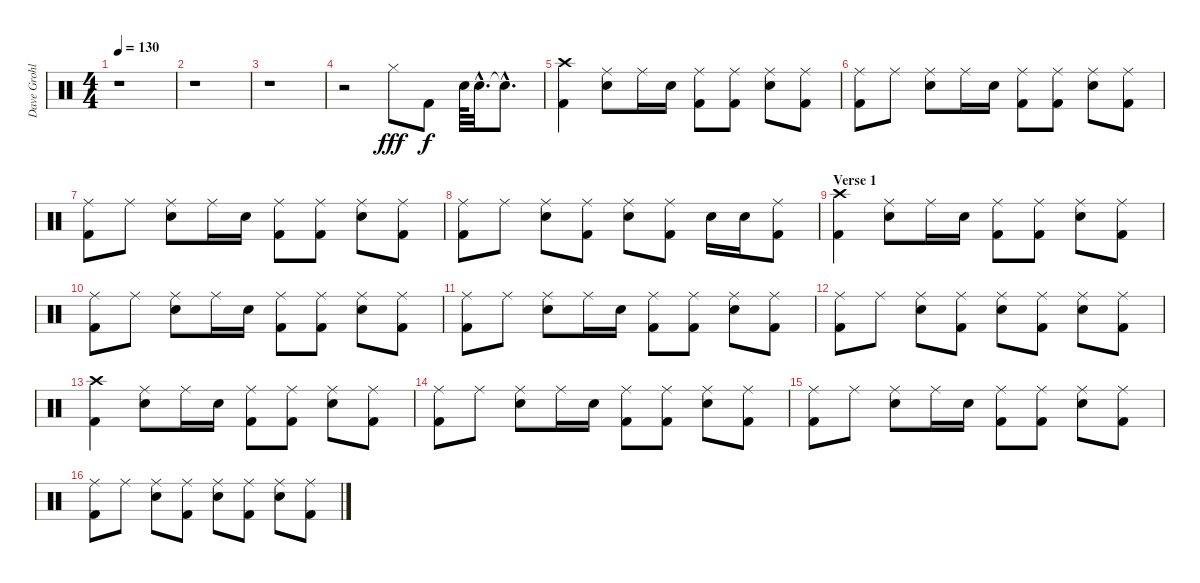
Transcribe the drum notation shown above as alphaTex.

\track ("Dave Grohl" "Dave Grohl") {instrument percussion}
\staff {score}
\articulation defaults
\ts (4 4)
\tempo 130
\clef neutral
\ks c
r.1{dy fff} |
r.1 |
r.1 |
r.2 "Hi-Hat (closed)".8 "Kick (hit) 2".8{dy f} "Electric Snare (hit)".64 "Electric Snare (hit)"{hac}.32{d} "Snare (hit)"{hac t}.8{d} |
("Crash high (hit)" "Kick (hit) 2").4 ("Ride (middle)" "Electric Snare (hit)").8 "Ride (middle)".16 "Electric Snare (hit)".16 ("Ride (middle)" "Kick (hit) 2").8 ("Ride (middle)" "Kick (hit) 2").8 ("Ride (middle)" "Electric Snare (hit)").8 ("Ride (middle)" "Kick (hit) 2").8 |
("Ride (middle)" "Kick (hit) 2").8 "Ride (middle)".8 ("Ride (middle)" "Electric Snare (hit)").8 "Ride (middle)".16 "Electric Snare (hit)".16 ("Ride (middle)" "Kick (hit) 2").8 ("Ride (middle)" "Kick (hit) 2").8 ("Ride (middle)" "Electric Snare (hit)").8 ("Ride (middle)" "Kick (hit) 2").8 |
("Ride (middle)" "Kick (hit) 2").8 "Ride (middle)".8 ("Ride (middle)" "Electric Snare (hit)").8 "Ride (middle)".16 "Electric Snare (hit)".16 ("Ride (middle)" "Kick (hit) 2").8 ("Ride (middle)" "Kick (hit) 2").8 ("Ride (middle)" "Electric Snare (hit)").8 ("Ride (middle)" "Kick (hit) 2").8 |
("Ride (middle)" "Kick (hit) 2").8 "Ride (middle)".8 ("Ride (middle)" "Electric Snare (hit)").8 ("Ride (middle)" "Kick (hit) 2").8 ("Ride (middle)" "Electric Snare (hit)").8 ("Ride (middle)" "Kick (hit) 2").8 "Electric Snare (hit)".16 "Electric Snare (hit)".16 ("Ride (middle)" "Kick (hit) 2").8 |
\section ("" "Verse 1")
("Crash high (hit)" "Kick (hit) 2").4 ("Ride (middle)" "Electric Snare (hit)").8 "Ride (middle)".16 "Electric Snare (hit)".16 ("Ride (middle)" "Kick (hit) 2").8 ("Ride (middle)" "Kick (hit) 2").8 ("Ride (middle)" "Electric Snare (hit)").8 ("Ride (middle)" "Kick (hit) 2").8 |
("Ride (middle)" "Kick (hit) 2").8 "Ride (middle)".8 ("Ride (middle)" "Electric Snare (hit)").8 "Ride (middle)".16 "Electric Snare (hit)".16 ("Ride (middle)" "Kick (hit) 2").8 ("Ride (middle)" "Kick (hit) 2").8 ("Ride (middle)" "Electric Snare (hit)").8 ("Ride (middle)" "Kick (hit) 2").8 |
("Ride (middle)" "Kick (hit) 2").8 "Ride (middle)".8 ("Ride (middle)" "Electric Snare (hit)").8 "Ride (middle)".16 "Electric Snare (hit)".16 ("Ride (middle)" "Kick (hit) 2").8 ("Ride (middle)" "Kick (hit) 2").8 ("Ride (middle)" "Electric Snare (hit)").8 ("Ride (middle)" "Kick (hit) 2").8 |
("Ride (middle)" "Kick (hit) 2").8 "Ride (middle)".8 ("Ride (middle)" "Electric Snare (hit)").8 ("Ride (middle)" "Kick (hit) 2").8 ("Ride (middle)" "Electric Snare (hit)").8 ("Ride (middle)" "Kick (hit) 2").8 ("Ride (middle)" "Electric Snare (hit)").8 ("Ride (middle)" "Kick (hit) 2").8 |
("Crash high (hit)" "Kick (hit) 2").4 ("Ride (middle)" "Electric Snare (hit)").8 "Ride (middle)".16 "Electric Snare (hit)".16 ("Ride (middle)" "Kick (hit) 2").8 ("Ride (middle)" "Kick (hit) 2").8 ("Ride (middle)" "Electric Snare (hit)").8 ("Ride (middle)" "Kick (hit) 2").8 |
("Ride (middle)" "Kick (hit) 2").8 "Ride (middle)".8 ("Ride (middle)" "Electric Snare (hit)").8 "Ride (middle)".16 "Electric Snare (hit)".16 ("Ride (middle)" "Kick (hit) 2").8 ("Ride (middle)" "Kick (hit) 2").8 ("Ride (middle)" "Electric Snare (hit)").8 ("Ride (middle)" "Kick (hit) 2").8 |
("Ride (middle)" "Kick (hit) 2").8 "Ride (middle)".8 ("Ride (middle)" "Electric Snare (hit)").8 "Ride (middle)".16 "Electric Snare (hit)".16 ("Ride (middle)" "Kick (hit) 2").8 ("Ride (middle)" "Kick (hit) 2").8 ("Ride (middle)" "Electric Snare (hit)").8 ("Ride (middle)" "Kick (hit) 2").8 |
("Ride (middle)" "Kick (hit) 2").8 "Ride (middle)".8 ("Ride (middle)" "Electric Snare (hit)").8 ("Ride (middle)" "Kick (hit) 2").8 ("Ride (middle)" "Electric Snare (hit)").8 ("Ride (middle)" "Kick (hit) 2").8 ("Ride (middle)" "Electric Snare (hit)").8 ("Ride (middle)" "Kick (hit) 2").8
